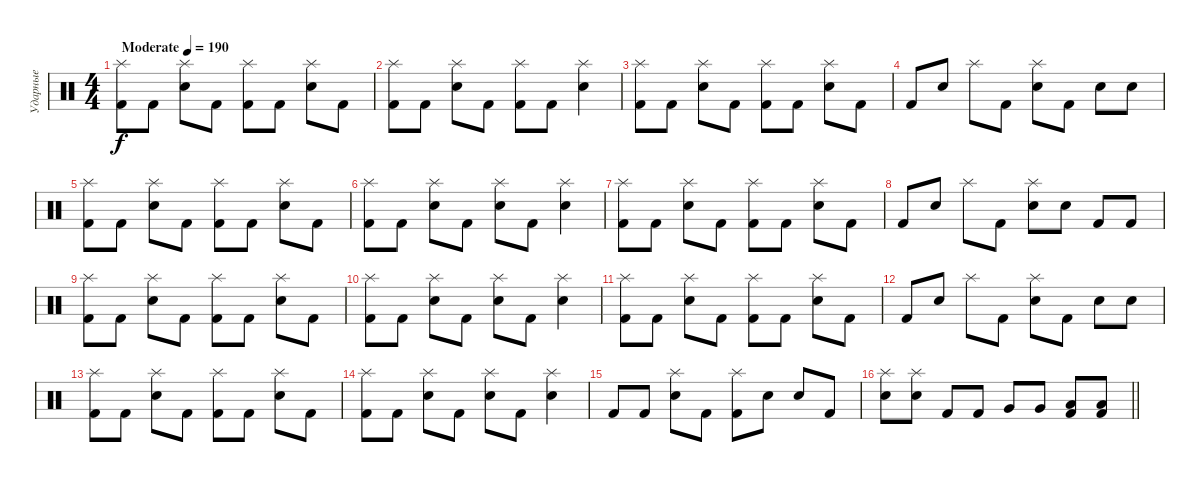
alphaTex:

\track ("Ударные" "Ударные") {instrument percussion}
\staff {score}
\articulation defaults
\ts (4 4)
\tempo (190 "Moderate")
\clef neutral
\ks c
("Splash (hit)" "Kick (hit) 2").8{dy f} "Kick (hit) 2".8 ("Splash (hit)" "Electric Snare (hit)").8 "Kick (hit) 2".8 ("Splash (hit)" "Kick (hit) 2").8 "Kick (hit) 2".8 ("Splash (hit)" "Electric Snare (hit)").8 "Kick (hit) 2".8 |
("Splash (hit)" "Kick (hit) 2").8 "Kick (hit) 2".8 ("Splash (hit)" "Electric Snare (hit)").8 "Kick (hit) 2".8 ("Splash (hit)" "Kick (hit) 2").8 "Kick (hit) 2".8 ("Splash (hit)" "Electric Snare (hit)").4 |
("Splash (hit)" "Kick (hit) 2").8 "Kick (hit) 2".8 ("Splash (hit)" "Electric Snare (hit)").8 "Kick (hit) 2".8 ("Splash (hit)" "Kick (hit) 2").8 "Kick (hit) 2".8 ("Splash (hit)" "Electric Snare (hit)").8 "Kick (hit) 2".8 |
"Kick (hit) 2".8 "Electric Snare (hit)".8 "Splash (hit)".8 "Kick (hit) 2".8 ("Splash (hit)" "Electric Snare (hit)").8 "Kick (hit) 2".8 "Electric Snare (hit)".8 "Electric Snare (hit)".8 |
("Splash (hit)" "Kick (hit) 2").8 "Kick (hit) 2".8 ("Splash (hit)" "Electric Snare (hit)").8 "Kick (hit) 2".8 ("Splash (hit)" "Kick (hit) 2").8 "Kick (hit) 2".8 ("Splash (hit)" "Electric Snare (hit)").8 "Kick (hit) 2".8 |
("Splash (hit)" "Kick (hit) 2").8 "Kick (hit) 2".8 ("Splash (hit)" "Electric Snare (hit)").8 "Kick (hit) 2".8 ("Splash (hit)" "Electric Snare (hit)").8 "Kick (hit) 2".8 ("Splash (hit)" "Electric Snare (hit)").4 |
("Splash (hit)" "Kick (hit) 2").8 "Kick (hit) 2".8 ("Splash (hit)" "Electric Snare (hit)").8 "Kick (hit) 2".8 ("Splash (hit)" "Kick (hit) 2").8 "Kick (hit) 2".8 ("Splash (hit)" "Electric Snare (hit)").8 "Kick (hit) 2".8 |
"Kick (hit) 2".8 "Electric Snare (hit)".8 "Splash (hit)".8 "Kick (hit) 2".8 ("Splash (hit)" "Electric Snare (hit)").8 "Electric Snare (hit)".8 "Kick (hit) 2".8 "Kick (hit) 2".8 |
("Splash (hit)" "Kick (hit) 2").8 "Kick (hit) 2".8 ("Splash (hit)" "Electric Snare (hit)").8 "Kick (hit) 2".8 ("Splash (hit)" "Kick (hit) 2").8 "Kick (hit) 2".8 ("Splash (hit)" "Electric Snare (hit)").8 "Kick (hit) 2".8 |
("Splash (hit)" "Kick (hit) 2").8 "Kick (hit) 2".8 ("Splash (hit)" "Electric Snare (hit)").8 "Kick (hit) 2".8 ("Splash (hit)" "Electric Snare (hit)").8 "Kick (hit) 2".8 ("Splash (hit)" "Electric Snare (hit)").4 |
("Splash (hit)" "Kick (hit) 2").8 "Kick (hit) 2".8 ("Splash (hit)" "Electric Snare (hit)").8 "Kick (hit) 2".8 ("Splash (hit)" "Kick (hit) 2").8 "Kick (hit) 2".8 ("Splash (hit)" "Electric Snare (hit)").8 "Kick (hit) 2".8 |
"Kick (hit) 2".8 "Electric Snare (hit)".8 "Splash (hit)".8 "Kick (hit) 2".8 ("Splash (hit)" "Electric Snare (hit)").8 "Kick (hit) 2".8 "Electric Snare (hit)".8 "Electric Snare (hit)".8 |
("Splash (hit)" "Kick (hit) 2").8 "Kick (hit) 2".8 ("Splash (hit)" "Electric Snare (hit)").8 "Kick (hit) 2".8 ("Splash (hit)" "Kick (hit) 2").8 "Kick (hit) 2".8 ("Splash (hit)" "Electric Snare (hit)").8 "Kick (hit) 2".8 |
("Splash (hit)" "Kick (hit) 2").8 "Kick (hit) 2".8 ("Splash (hit)" "Electric Snare (hit)").8 "Kick (hit) 2".8 ("Splash (hit)" "Electric Snare (hit)").8 "Kick (hit) 2".8 ("Splash (hit)" "Electric Snare (hit)").4 |
"Kick (hit) 2".8 "Kick (hit) 2".8 ("Splash (hit)" "Electric Snare (hit)").8 "Kick (hit) 2".8 ("Splash (hit)" "Kick (hit) 2").8 "Electric Snare (hit)".8 "Electric Snare (hit)".8 "Kick (hit) 2".8 |
\barLineRight lightlight
("Splash (hit)" "Electric Snare (hit)").8 ("Splash (hit)" "Electric Snare (hit)").8 "Kick (hit) 2".8 "Kick (hit) 2".8 "Very Low Tom (hit)".8 "Very Low Tom (hit)".8 ("Low Floor Tom (hit)" "Kick (hit) 2").8 ("Low Floor Tom (hit)" "Kick (hit) 2").8
